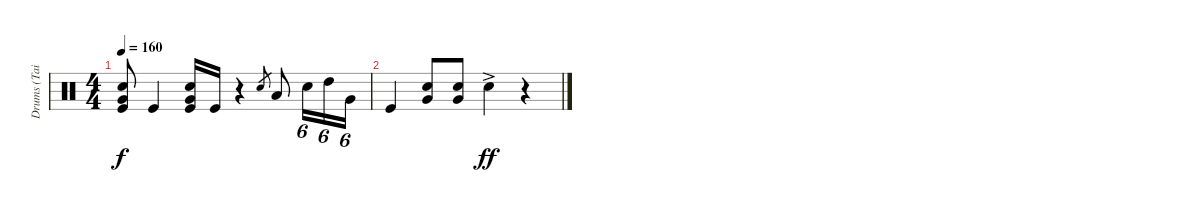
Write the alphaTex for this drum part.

\track ("Drums (Tainaka Ritsu)" "Drums (Tai") {instrument percussion}
\staff {score}
\articulation defaults
\ts (4 4)
\tempo 160
\clef neutral
\ks c
("Snare (hit) 2" "Very Low Tom (hit)" "Kick (hit)").8{dy f} "Kick (hit)".4 ("Snare (hit) 2" "Very Low Tom (hit)" "Kick (hit)").16 "Kick (hit)".16 r.4 "Snare (hit) 2".8{gr} "Low Tom (hit)".8 "Snare (hit) 2".16{tu (6 4)} "High Tom (hit)".16{tu (6 4)} "Very Low Tom (hit)".16{tu (6 4)} |
"Kick (hit)".4 ("Snare (hit) 2" "Very Low Tom (hit)").8 ("Snare (hit) 2" "Very Low Tom (hit)").8 "Snare (hit) 2"{ac}.4{dy ff} r.4
